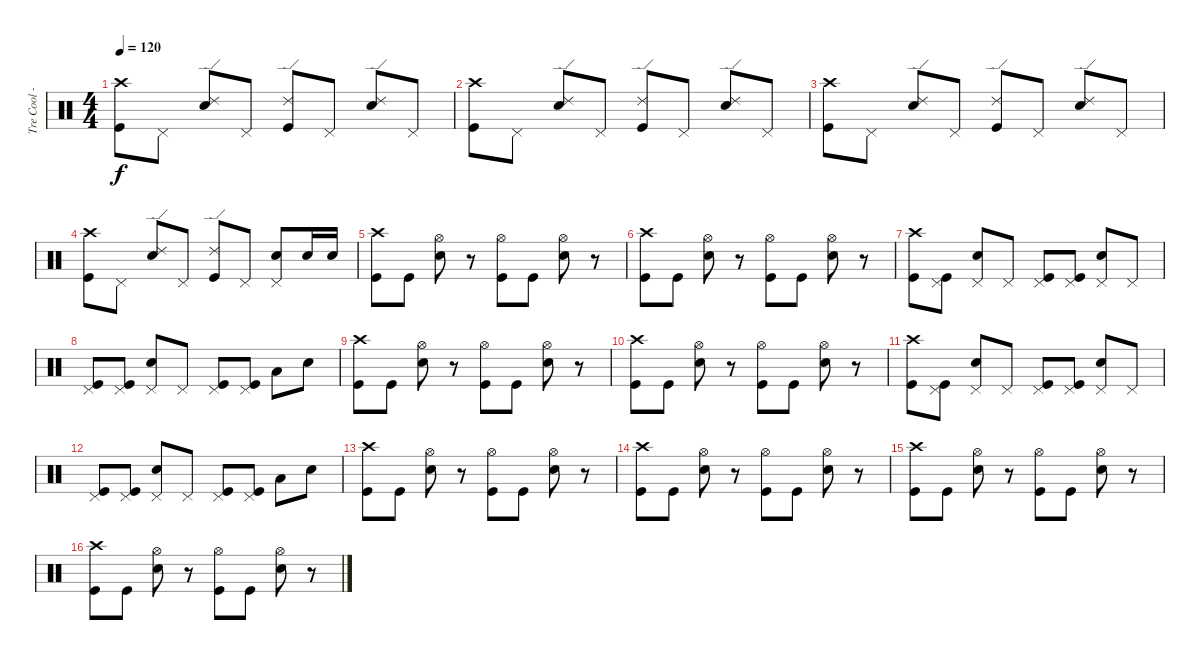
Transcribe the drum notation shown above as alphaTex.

\track ("Tre Cool - Percussion" "Tre Cool -") {instrument percussion}
\staff {score}
\articulation defaults
\ts (4 4)
\tempo 120
\clef neutral
\ks c
("Crash high (hit)" "Kick (hit)").8{dy f} "Pedal Hi-Hat (hit)".8 ("Ride (edge) 2" "Electric Snare (hit)").8 "Pedal Hi-Hat (hit)".8 ("Ride (edge) 2" "Kick (hit)").8 "Pedal Hi-Hat (hit)".8 ("Ride (edge) 2" "Electric Snare (hit)").8 "Pedal Hi-Hat (hit)".8 |
("Crash high (hit)" "Kick (hit)").8 "Pedal Hi-Hat (hit)".8 ("Ride (edge) 2" "Electric Snare (hit)").8 "Pedal Hi-Hat (hit)".8 ("Ride (edge) 2" "Kick (hit)").8 "Pedal Hi-Hat (hit)".8 ("Ride (edge) 2" "Electric Snare (hit)").8 "Pedal Hi-Hat (hit)".8 |
("Crash high (hit)" "Kick (hit)").8 "Pedal Hi-Hat (hit)".8 ("Ride (edge) 2" "Electric Snare (hit)").8 "Pedal Hi-Hat (hit)".8 ("Ride (edge) 2" "Kick (hit)").8 "Pedal Hi-Hat (hit)".8 ("Ride (edge) 2" "Electric Snare (hit)").8 "Pedal Hi-Hat (hit)".8 |
("Crash high (hit)" "Kick (hit)").8 "Pedal Hi-Hat (hit)".8 ("Ride (edge) 2" "Electric Snare (hit)").8 "Pedal Hi-Hat (hit)".8 ("Ride (edge) 2" "Kick (hit)").8 "Pedal Hi-Hat (hit)".8 ("Pedal Hi-Hat (hit)" "Electric Snare (hit)").8 "Electric Snare (hit)".16 "Electric Snare (hit)".16 |
("Crash high (hit)" "Kick (hit)").8 "Kick (hit)".8 ("Hi-Hat (open)" "Electric Snare (hit)").8 r.8 ("Hi-Hat (open)" "Kick (hit)").8 "Kick (hit)".8 ("Hi-Hat (open)" "Electric Snare (hit)").8 r.8 |
("Crash high (hit)" "Kick (hit)").8 "Kick (hit)".8 ("Hi-Hat (open)" "Electric Snare (hit)").8 r.8 ("Hi-Hat (open)" "Kick (hit)").8 "Kick (hit)".8 ("Hi-Hat (open)" "Electric Snare (hit)").8 r.8 |
("Crash high (hit)" "Kick (hit)").8 ("Pedal Hi-Hat (hit)" "Kick (hit)").8 ("Pedal Hi-Hat (hit)" "Electric Snare (hit)").8 "Pedal Hi-Hat (hit)".8 ("Pedal Hi-Hat (hit)" "Kick (hit)").8 ("Pedal Hi-Hat (hit)" "Kick (hit)").8 ("Pedal Hi-Hat (hit)" "Electric Snare (hit)").8 "Pedal Hi-Hat (hit)".8 |
("Pedal Hi-Hat (hit)" "Kick (hit)").8 ("Pedal Hi-Hat (hit)" "Kick (hit)").8 ("Pedal Hi-Hat (hit)" "Electric Snare (hit)").8 "Pedal Hi-Hat (hit)".8 ("Pedal Hi-Hat (hit)" "Kick (hit)").8 ("Pedal Hi-Hat (hit)" "Kick (hit)").8 "Low Tom (hit)".8 "Electric Snare (hit)".8 |
("Crash high (hit)" "Kick (hit)").8 "Kick (hit)".8 ("Hi-Hat (open)" "Electric Snare (hit)").8 r.8 ("Hi-Hat (open)" "Kick (hit)").8 "Kick (hit)".8 ("Hi-Hat (open)" "Electric Snare (hit)").8 r.8 |
("Crash high (hit)" "Kick (hit)").8 "Kick (hit)".8 ("Hi-Hat (open)" "Electric Snare (hit)").8 r.8 ("Hi-Hat (open)" "Kick (hit)").8 "Kick (hit)".8 ("Hi-Hat (open)" "Electric Snare (hit)").8 r.8 |
("Crash high (hit)" "Kick (hit)").8 ("Pedal Hi-Hat (hit)" "Kick (hit)").8 ("Pedal Hi-Hat (hit)" "Electric Snare (hit)").8 "Pedal Hi-Hat (hit)".8 ("Pedal Hi-Hat (hit)" "Kick (hit)").8 ("Pedal Hi-Hat (hit)" "Kick (hit)").8 ("Pedal Hi-Hat (hit)" "Electric Snare (hit)").8 "Pedal Hi-Hat (hit)".8 |
("Pedal Hi-Hat (hit)" "Kick (hit)").8 ("Pedal Hi-Hat (hit)" "Kick (hit)").8 ("Pedal Hi-Hat (hit)" "Electric Snare (hit)").8 "Pedal Hi-Hat (hit)".8 ("Pedal Hi-Hat (hit)" "Kick (hit)").8 ("Pedal Hi-Hat (hit)" "Kick (hit)").8 "Low Tom (hit)".8 "Electric Snare (hit)".8 |
("Crash high (hit)" "Kick (hit)").8 "Kick (hit)".8 ("Hi-Hat (open)" "Electric Snare (hit)").8 r.8 ("Hi-Hat (open)" "Kick (hit)").8 "Kick (hit)".8 ("Hi-Hat (open)" "Electric Snare (hit)").8 r.8 |
("Crash high (hit)" "Kick (hit)").8 "Kick (hit)".8 ("Hi-Hat (open)" "Electric Snare (hit)").8 r.8 ("Hi-Hat (open)" "Kick (hit)").8 "Kick (hit)".8 ("Hi-Hat (open)" "Electric Snare (hit)").8 r.8 |
("Crash high (hit)" "Kick (hit)").8 "Kick (hit)".8 ("Hi-Hat (open)" "Electric Snare (hit)").8 r.8 ("Hi-Hat (open)" "Kick (hit)").8 "Kick (hit)".8 ("Hi-Hat (open)" "Electric Snare (hit)").8 r.8 |
("Crash high (hit)" "Kick (hit)").8 "Kick (hit)".8 ("Hi-Hat (open)" "Electric Snare (hit)").8 r.8 ("Hi-Hat (open)" "Kick (hit)").8 "Kick (hit)".8 ("Hi-Hat (open)" "Electric Snare (hit)").8 r.8
